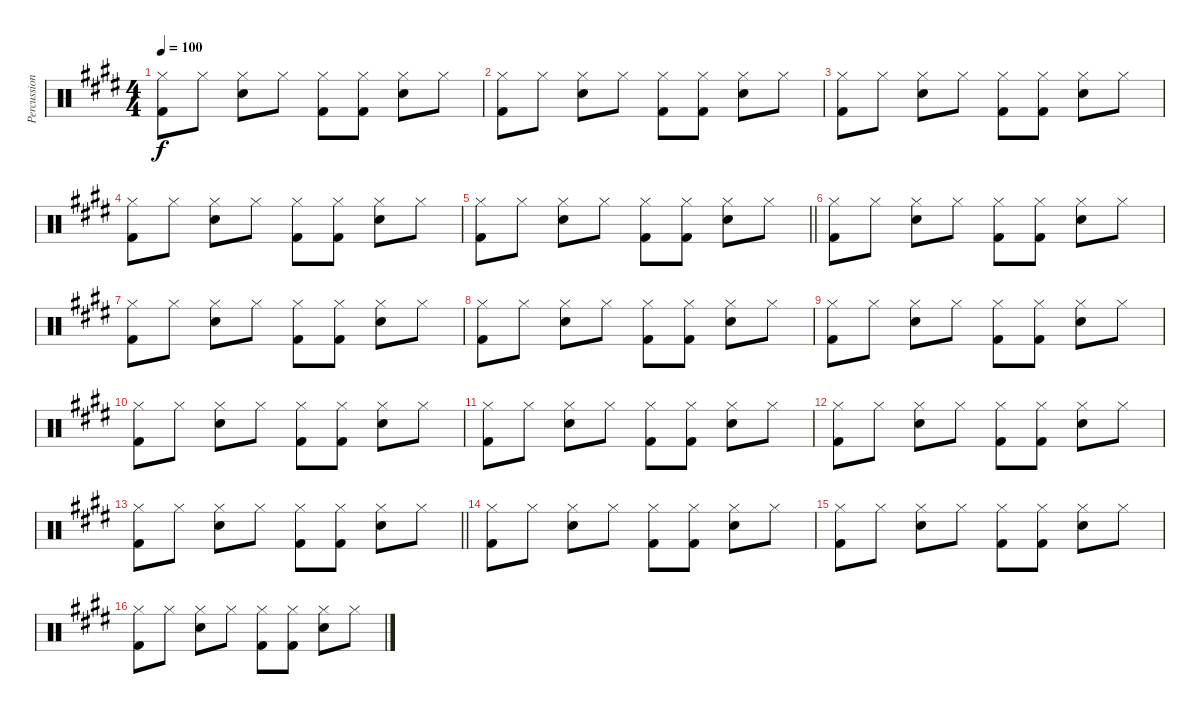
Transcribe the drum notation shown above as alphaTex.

\track ("Percussion" "Percussion") {instrument percussion}
\staff {score}
\articulation defaults
\ts (4 4)
\tempo 100
\clef neutral
\ks e
("Hi-Hat (closed)" "Kick (hit) 2").8{dy f} "Hi-Hat (closed)".8 ("Hi-Hat (closed)" "Snare (hit) 2").8 "Hi-Hat (closed)".8 ("Hi-Hat (closed)" "Kick (hit) 2").8 ("Hi-Hat (closed)" "Kick (hit) 2").8 ("Hi-Hat (closed)" "Snare (hit) 2").8 "Hi-Hat (closed)".8 |
("Hi-Hat (closed)" "Kick (hit) 2").8 "Hi-Hat (closed)".8 ("Hi-Hat (closed)" "Snare (hit) 2").8 "Hi-Hat (closed)".8 ("Hi-Hat (closed)" "Kick (hit) 2").8 ("Hi-Hat (closed)" "Kick (hit) 2").8 ("Hi-Hat (closed)" "Snare (hit) 2").8 "Hi-Hat (closed)".8 |
("Hi-Hat (closed)" "Kick (hit) 2").8 "Hi-Hat (closed)".8 ("Hi-Hat (closed)" "Snare (hit) 2").8 "Hi-Hat (closed)".8 ("Hi-Hat (closed)" "Kick (hit) 2").8 ("Hi-Hat (closed)" "Kick (hit) 2").8 ("Hi-Hat (closed)" "Snare (hit) 2").8 "Hi-Hat (closed)".8 |
("Hi-Hat (closed)" "Kick (hit) 2").8 "Hi-Hat (closed)".8 ("Hi-Hat (closed)" "Snare (hit) 2").8 "Hi-Hat (closed)".8 ("Hi-Hat (closed)" "Kick (hit) 2").8 ("Hi-Hat (closed)" "Kick (hit) 2").8 ("Hi-Hat (closed)" "Snare (hit) 2").8 "Hi-Hat (closed)".8 |
\barLineRight lightlight
("Hi-Hat (closed)" "Kick (hit) 2").8 "Hi-Hat (closed)".8 ("Hi-Hat (closed)" "Snare (hit) 2").8 "Hi-Hat (closed)".8 ("Hi-Hat (closed)" "Kick (hit) 2").8 ("Hi-Hat (closed)" "Kick (hit) 2").8 ("Hi-Hat (closed)" "Snare (hit) 2").8 "Hi-Hat (closed)".8 |
("Hi-Hat (closed)" "Kick (hit) 2").8 "Hi-Hat (closed)".8 ("Hi-Hat (closed)" "Snare (hit) 2").8 "Hi-Hat (closed)".8 ("Hi-Hat (closed)" "Kick (hit) 2").8 ("Hi-Hat (closed)" "Kick (hit) 2").8 ("Hi-Hat (closed)" "Snare (hit) 2").8 "Hi-Hat (closed)".8 |
("Hi-Hat (closed)" "Kick (hit) 2").8 "Hi-Hat (closed)".8 ("Hi-Hat (closed)" "Snare (hit) 2").8 "Hi-Hat (closed)".8 ("Hi-Hat (closed)" "Kick (hit) 2").8 ("Hi-Hat (closed)" "Kick (hit) 2").8 ("Hi-Hat (closed)" "Snare (hit) 2").8 "Hi-Hat (closed)".8 |
("Hi-Hat (closed)" "Kick (hit) 2").8 "Hi-Hat (closed)".8 ("Hi-Hat (closed)" "Snare (hit) 2").8 "Hi-Hat (closed)".8 ("Hi-Hat (closed)" "Kick (hit) 2").8 ("Hi-Hat (closed)" "Kick (hit) 2").8 ("Hi-Hat (closed)" "Snare (hit) 2").8 "Hi-Hat (closed)".8 |
("Hi-Hat (closed)" "Kick (hit) 2").8 "Hi-Hat (closed)".8 ("Hi-Hat (closed)" "Snare (hit) 2").8 "Hi-Hat (closed)".8 ("Hi-Hat (closed)" "Kick (hit) 2").8 ("Hi-Hat (closed)" "Kick (hit) 2").8 ("Hi-Hat (closed)" "Snare (hit) 2").8 "Hi-Hat (closed)".8 |
("Hi-Hat (closed)" "Kick (hit) 2").8 "Hi-Hat (closed)".8 ("Hi-Hat (closed)" "Snare (hit) 2").8 "Hi-Hat (closed)".8 ("Hi-Hat (closed)" "Kick (hit) 2").8 ("Hi-Hat (closed)" "Kick (hit) 2").8 ("Hi-Hat (closed)" "Snare (hit) 2").8 "Hi-Hat (closed)".8 |
("Hi-Hat (closed)" "Kick (hit) 2").8 "Hi-Hat (closed)".8 ("Hi-Hat (closed)" "Snare (hit) 2").8 "Hi-Hat (closed)".8 ("Hi-Hat (closed)" "Kick (hit) 2").8 ("Hi-Hat (closed)" "Kick (hit) 2").8 ("Hi-Hat (closed)" "Snare (hit) 2").8 "Hi-Hat (closed)".8 |
("Hi-Hat (closed)" "Kick (hit) 2").8 "Hi-Hat (closed)".8 ("Hi-Hat (closed)" "Snare (hit) 2").8 "Hi-Hat (closed)".8 ("Hi-Hat (closed)" "Kick (hit) 2").8 ("Hi-Hat (closed)" "Kick (hit) 2").8 ("Hi-Hat (closed)" "Snare (hit) 2").8 "Hi-Hat (closed)".8 |
\barLineRight lightlight
("Hi-Hat (closed)" "Kick (hit) 2").8 "Hi-Hat (closed)".8 ("Hi-Hat (closed)" "Snare (hit) 2").8 "Hi-Hat (closed)".8 ("Hi-Hat (closed)" "Kick (hit) 2").8 ("Hi-Hat (closed)" "Kick (hit) 2").8 ("Hi-Hat (closed)" "Snare (hit) 2").8 "Hi-Hat (closed)".8 |
("Hi-Hat (closed)" "Kick (hit) 2").8 "Hi-Hat (closed)".8 ("Hi-Hat (closed)" "Snare (hit) 2").8 "Hi-Hat (closed)".8 ("Hi-Hat (closed)" "Kick (hit) 2").8 ("Hi-Hat (closed)" "Kick (hit) 2").8 ("Hi-Hat (closed)" "Snare (hit) 2").8 "Hi-Hat (closed)".8 |
("Hi-Hat (closed)" "Kick (hit) 2").8 "Hi-Hat (closed)".8 ("Hi-Hat (closed)" "Snare (hit) 2").8 "Hi-Hat (closed)".8 ("Hi-Hat (closed)" "Kick (hit) 2").8 ("Hi-Hat (closed)" "Kick (hit) 2").8 ("Hi-Hat (closed)" "Snare (hit) 2").8 "Hi-Hat (closed)".8 |
("Hi-Hat (closed)" "Kick (hit) 2").8 "Hi-Hat (closed)".8 ("Hi-Hat (closed)" "Snare (hit) 2").8 "Hi-Hat (closed)".8 ("Hi-Hat (closed)" "Kick (hit) 2").8 ("Hi-Hat (closed)" "Kick (hit) 2").8 ("Hi-Hat (closed)" "Snare (hit) 2").8 "Hi-Hat (closed)".8
